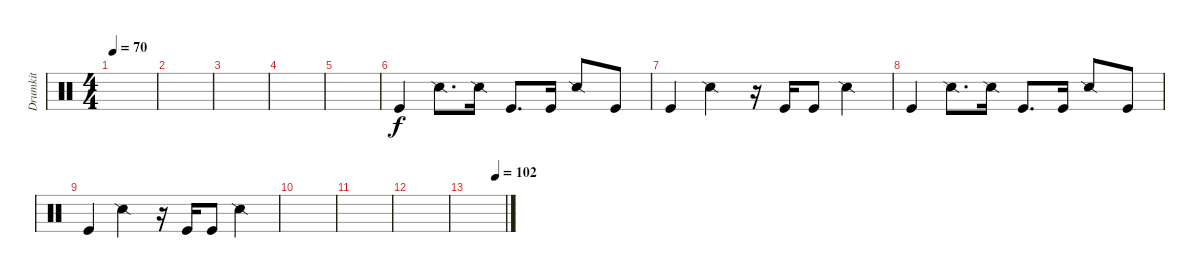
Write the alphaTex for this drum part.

\track ("Drumkit" "Drumkit") {instrument percussion}
\staff {score}
\articulation defaults
\ts (4 4)
\tempo 70
\clef neutral
\ks c
|
|
|
|
|
"Kick (hit)".4 "Snare (side stick) 2".8{d} "Snare (side stick) 2".16 "Kick (hit)".8{d} "Kick (hit)".16 "Snare (side stick) 2".8 "Kick (hit)".8 |
"Kick (hit)".4 "Snare (side stick) 2".4 r.16 "Kick (hit)".16 "Kick (hit)".8 "Snare (side stick) 2".4 |
"Kick (hit)".4 "Snare (side stick) 2".8{d} "Snare (side stick) 2".16 "Kick (hit)".8{d} "Kick (hit)".16 "Snare (side stick) 2".8 "Kick (hit)".8 |
"Kick (hit)".4 "Snare (side stick) 2".4 r.16 "Kick (hit)".16 "Kick (hit)".8 "Snare (side stick) 2".4 |
|
|
|
\tempo (102 0.75)
